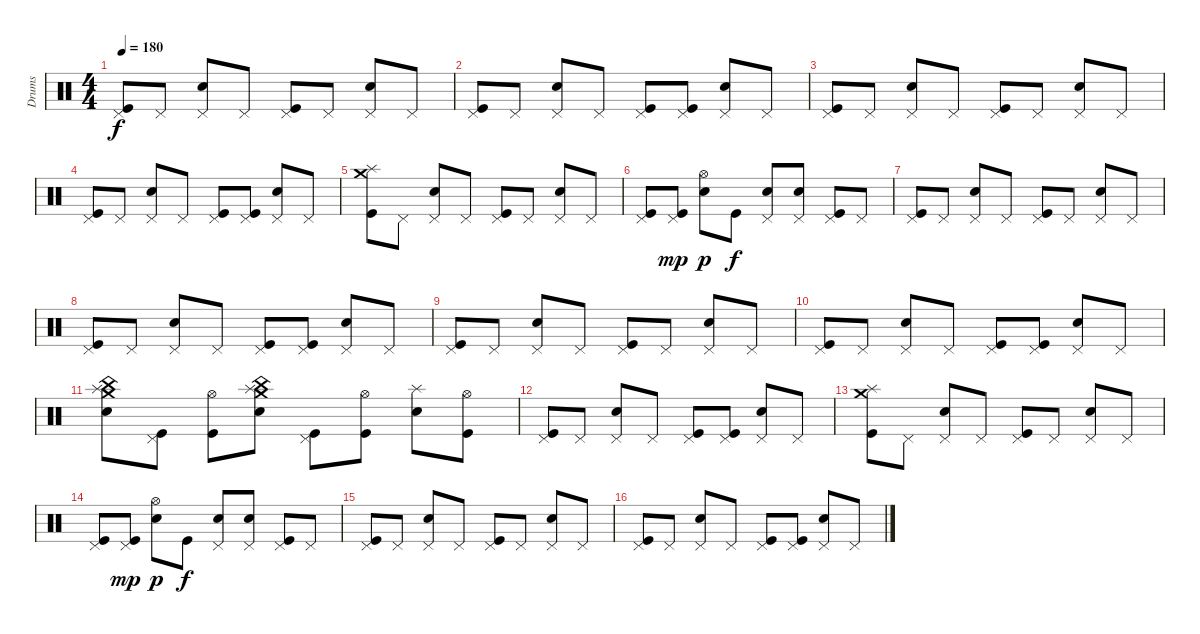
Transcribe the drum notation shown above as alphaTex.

\track ("Drums" "Drums") {instrument percussion}
\staff {score}
\articulation defaults
\ts (4 4)
\tempo 180
\clef neutral
\ks c
("Pedal Hi-Hat (hit)" "Kick (hit)").8{dy f} "Pedal Hi-Hat (hit)".8 ("Pedal Hi-Hat (hit)" "Snare (hit) 2").8 "Pedal Hi-Hat (hit)".8 ("Pedal Hi-Hat (hit)" "Kick (hit)").8 "Pedal Hi-Hat (hit)".8 ("Pedal Hi-Hat (hit)" "Snare (hit) 2").8 "Pedal Hi-Hat (hit)".8 |
("Pedal Hi-Hat (hit)" "Kick (hit)").8 "Pedal Hi-Hat (hit)".8 ("Pedal Hi-Hat (hit)" "Snare (hit) 2").8 "Pedal Hi-Hat (hit)".8 ("Pedal Hi-Hat (hit)" "Kick (hit)").8 ("Pedal Hi-Hat (hit)" "Kick (hit)").8 ("Pedal Hi-Hat (hit)" "Snare (hit) 2").8 "Pedal Hi-Hat (hit)".8 |
("Pedal Hi-Hat (hit)" "Kick (hit)").8 "Pedal Hi-Hat (hit)".8 ("Pedal Hi-Hat (hit)" "Snare (hit) 2").8 "Pedal Hi-Hat (hit)".8 ("Pedal Hi-Hat (hit)" "Kick (hit)").8 "Pedal Hi-Hat (hit)".8 ("Pedal Hi-Hat (hit)" "Snare (hit) 2").8 "Pedal Hi-Hat (hit)".8 |
("Pedal Hi-Hat (hit)" "Kick (hit)").8 "Pedal Hi-Hat (hit)".8 ("Pedal Hi-Hat (hit)" "Snare (hit) 2").8 "Pedal Hi-Hat (hit)".8 ("Pedal Hi-Hat (hit)" "Kick (hit)").8 ("Pedal Hi-Hat (hit)" "Kick (hit)").8 ("Pedal Hi-Hat (hit)" "Snare (hit) 2").8 "Pedal Hi-Hat (hit)".8 |
("Splash (hit)" "Crash medium (hit)" "Kick (hit)").8 "Pedal Hi-Hat (hit)".8 ("Pedal Hi-Hat (hit)" "Snare (hit) 2").8 "Pedal Hi-Hat (hit)".8 ("Pedal Hi-Hat (hit)" "Kick (hit)").8 "Pedal Hi-Hat (hit)".8 ("Pedal Hi-Hat (hit)" "Snare (hit) 2").8 "Pedal Hi-Hat (hit)".8 |
("Pedal Hi-Hat (hit)" "Kick (hit)").8 ("Pedal Hi-Hat (hit)" "Kick (hit)").8{dy mp} ("Hi-Hat (open)" "Snare (hit) 2").8{dy p} "Kick (hit)".8{dy f} ("Pedal Hi-Hat (hit)" "Snare (hit) 2").8 ("Pedal Hi-Hat (hit)" "Snare (hit) 2").8 ("Pedal Hi-Hat (hit)" "Kick (hit)").8 "Pedal Hi-Hat (hit)".8 |
("Pedal Hi-Hat (hit)" "Kick (hit)").8 "Pedal Hi-Hat (hit)".8 ("Pedal Hi-Hat (hit)" "Snare (hit) 2").8 "Pedal Hi-Hat (hit)".8 ("Pedal Hi-Hat (hit)" "Kick (hit)").8 "Pedal Hi-Hat (hit)".8 ("Pedal Hi-Hat (hit)" "Snare (hit) 2").8 "Pedal Hi-Hat (hit)".8 |
("Pedal Hi-Hat (hit)" "Kick (hit)").8 "Pedal Hi-Hat (hit)".8 ("Pedal Hi-Hat (hit)" "Snare (hit) 2").8 "Pedal Hi-Hat (hit)".8 ("Pedal Hi-Hat (hit)" "Kick (hit)").8 ("Pedal Hi-Hat (hit)" "Kick (hit)").8 ("Pedal Hi-Hat (hit)" "Snare (hit) 2").8 "Pedal Hi-Hat (hit)".8 |
("Pedal Hi-Hat (hit)" "Kick (hit)").8 "Pedal Hi-Hat (hit)".8 ("Pedal Hi-Hat (hit)" "Snare (hit) 2").8 "Pedal Hi-Hat (hit)".8 ("Pedal Hi-Hat (hit)" "Kick (hit)").8 "Pedal Hi-Hat (hit)".8 ("Pedal Hi-Hat (hit)" "Snare (hit) 2").8 "Pedal Hi-Hat (hit)".8 |
("Pedal Hi-Hat (hit)" "Kick (hit)").8 "Pedal Hi-Hat (hit)".8 ("Pedal Hi-Hat (hit)" "Snare (hit) 2").8 "Pedal Hi-Hat (hit)".8 ("Pedal Hi-Hat (hit)" "Kick (hit)").8 ("Pedal Hi-Hat (hit)" "Kick (hit)").8 ("Pedal Hi-Hat (hit)" "Snare (hit) 2").8 "Pedal Hi-Hat (hit)".8 |
("Splash (hit)" "China (hit)" "Crash medium (hit)" "Snare (hit) 2").8 ("Pedal Hi-Hat (hit)" "Kick (hit)").8 ("Hi-Hat (open)" "Kick (hit)").8 ("China (hit)" "Splash (hit)" "Crash medium (hit)" "Snare (hit) 2").8 ("Pedal Hi-Hat (hit)" "Kick (hit)").8 ("Hi-Hat (open)" "Kick (hit)").8 ("Splash (hit)" "Snare (hit) 2").8 ("Hi-Hat (open)" "Kick (hit)").8 |
("Pedal Hi-Hat (hit)" "Kick (hit)").8 "Pedal Hi-Hat (hit)".8 ("Pedal Hi-Hat (hit)" "Snare (hit) 2").8 "Pedal Hi-Hat (hit)".8 ("Pedal Hi-Hat (hit)" "Kick (hit)").8 ("Pedal Hi-Hat (hit)" "Kick (hit)").8 ("Pedal Hi-Hat (hit)" "Snare (hit) 2").8 "Pedal Hi-Hat (hit)".8 |
("Splash (hit)" "Crash medium (hit)" "Kick (hit)").8 "Pedal Hi-Hat (hit)".8 ("Pedal Hi-Hat (hit)" "Snare (hit) 2").8 "Pedal Hi-Hat (hit)".8 ("Pedal Hi-Hat (hit)" "Kick (hit)").8 "Pedal Hi-Hat (hit)".8 ("Pedal Hi-Hat (hit)" "Snare (hit) 2").8 "Pedal Hi-Hat (hit)".8 |
("Pedal Hi-Hat (hit)" "Kick (hit)").8 ("Pedal Hi-Hat (hit)" "Kick (hit)").8{dy mp} ("Hi-Hat (open)" "Snare (hit) 2").8{dy p} "Kick (hit)".8{dy f} ("Pedal Hi-Hat (hit)" "Snare (hit) 2").8 ("Pedal Hi-Hat (hit)" "Snare (hit) 2").8 ("Pedal Hi-Hat (hit)" "Kick (hit)").8 "Pedal Hi-Hat (hit)".8 |
("Pedal Hi-Hat (hit)" "Kick (hit)").8 "Pedal Hi-Hat (hit)".8 ("Pedal Hi-Hat (hit)" "Snare (hit) 2").8 "Pedal Hi-Hat (hit)".8 ("Pedal Hi-Hat (hit)" "Kick (hit)").8 "Pedal Hi-Hat (hit)".8 ("Pedal Hi-Hat (hit)" "Snare (hit) 2").8 "Pedal Hi-Hat (hit)".8 |
("Pedal Hi-Hat (hit)" "Kick (hit)").8 "Pedal Hi-Hat (hit)".8 ("Pedal Hi-Hat (hit)" "Snare (hit) 2").8 "Pedal Hi-Hat (hit)".8 ("Pedal Hi-Hat (hit)" "Kick (hit)").8 ("Pedal Hi-Hat (hit)" "Kick (hit)").8 ("Pedal Hi-Hat (hit)" "Snare (hit) 2").8 "Pedal Hi-Hat (hit)".8
